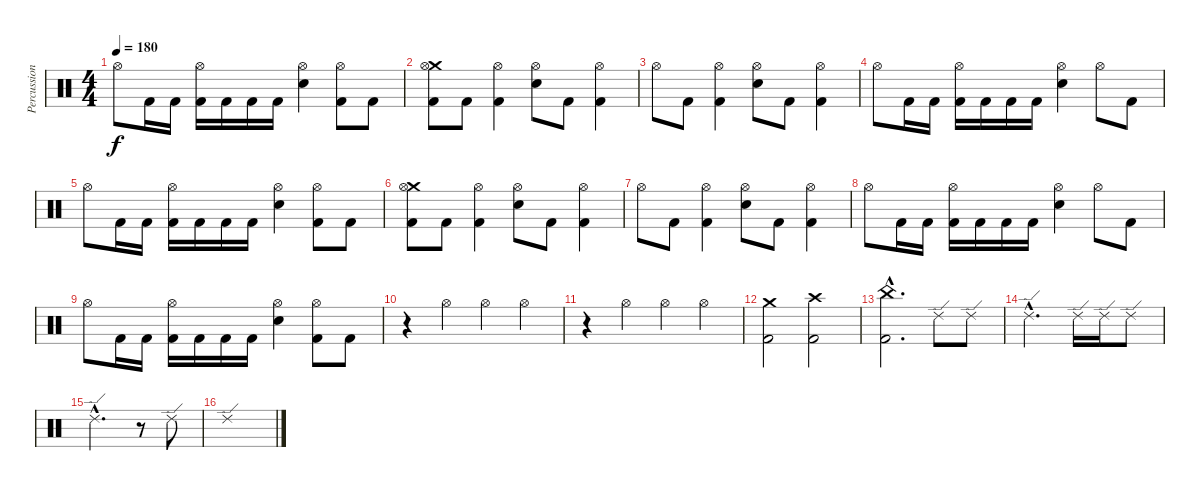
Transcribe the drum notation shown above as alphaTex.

\track ("Percussion" "Percussion") {instrument percussion}
\staff {score}
\articulation defaults
\ts (4 4)
\tempo 180
\clef neutral
\ks c "Hi-Hat (open)".8{dy f} "Kick (hit) 2".16 "Kick (hit) 2".16
("Hi-Hat (open)" "Kick (hit) 2").16 "Kick (hit) 2".16 "Kick (hit) 2".16 "Kick (hit) 2".16 ("Hi-Hat (open)" "Electric Snare (hit)").4 ("Hi-Hat (open)" "Kick (hit) 2").8 "Kick (hit) 2".8 |
("Crash medium (hit)" "Hi-Hat (open)" "Kick (hit) 2").8 "Kick (hit) 2".8 ("Hi-Hat (open)" "Kick (hit) 2").4 ("Hi-Hat (open)" "Electric Snare (hit)").8 "Kick (hit) 2".8 ("Hi-Hat (open)" "Kick (hit) 2").4 |
"Hi-Hat (open)".8 "Kick (hit) 2".8 ("Hi-Hat (open)" "Kick (hit) 2").4 ("Hi-Hat (open)" "Electric Snare (hit)").8 "Kick (hit) 2".8 ("Hi-Hat (open)" "Kick (hit) 2").4 |
"Hi-Hat (open)".8 "Kick (hit) 2".16 "Kick (hit) 2".16 ("Hi-Hat (open)" "Kick (hit) 2").16 "Kick (hit) 2".16 "Kick (hit) 2".16 "Kick (hit) 2".16 ("Hi-Hat (open)" "Electric Snare (hit)").4 "Hi-Hat (open)".8 "Kick (hit) 2".8 |
"Hi-Hat (open)".8 "Kick (hit) 2".16 "Kick (hit) 2".16 ("Hi-Hat (open)" "Kick (hit) 2").16 "Kick (hit) 2".16 "Kick (hit) 2".16 "Kick (hit) 2".16 ("Hi-Hat (open)" "Electric Snare (hit)").4 ("Hi-Hat (open)" "Kick (hit) 2").8 "Kick (hit) 2".8 |
("Crash medium (hit)" "Hi-Hat (open)" "Kick (hit) 2").8 "Kick (hit) 2".8 ("Hi-Hat (open)" "Kick (hit) 2").4 ("Hi-Hat (open)" "Electric Snare (hit)").8 "Kick (hit) 2".8 ("Hi-Hat (open)" "Kick (hit) 2").4 |
"Hi-Hat (open)".8 "Kick (hit) 2".8 ("Hi-Hat (open)" "Kick (hit) 2").4 ("Hi-Hat (open)" "Electric Snare (hit)").8 "Kick (hit) 2".8 ("Hi-Hat (open)" "Kick (hit) 2").4 |
"Hi-Hat (open)".8 "Kick (hit) 2".16 "Kick (hit) 2".16 ("Hi-Hat (open)" "Kick (hit) 2").16 "Kick (hit) 2".16 "Kick (hit) 2".16 "Kick (hit) 2".16 ("Hi-Hat (open)" "Electric Snare (hit)").4 "Hi-Hat (open)".8 "Kick (hit) 2".8 |
"Hi-Hat (open)".8 "Kick (hit) 2".16 "Kick (hit) 2".16 ("Hi-Hat (open)" "Kick (hit) 2").16 "Kick (hit) 2".16 "Kick (hit) 2".16 "Kick (hit) 2".16 ("Hi-Hat (open)" "Electric Snare (hit)").4 ("Hi-Hat (open)" "Kick (hit) 2").8 "Kick (hit) 2".8 |
r.4 "Hi-Hat (open)".4 "Hi-Hat (open)".4 "Hi-Hat (open)".4 |
r.4 "Hi-Hat (open)".4 "Hi-Hat (open)".4 "Hi-Hat (open)".4 |
("Crash medium (hit)" "Kick (hit) 2").2 ("Crash high (hit)" "Kick (hit) 2").2 |
("China (hit)"{hac} "Kick (hit) 2"{hac}).2{d volume 8} "Ride (edge) 2".8 "Ride (edge) 2".8 |
"Ride (edge) 2"{hac}.2{d} "Ride (edge) 2".16 "Ride (edge) 2".16 "Ride (edge) 2".8 |
"Ride (edge) 2"{hac}.2{d} r.8 "Ride (edge) 2".8 |
"Ride (edge) 2".1
